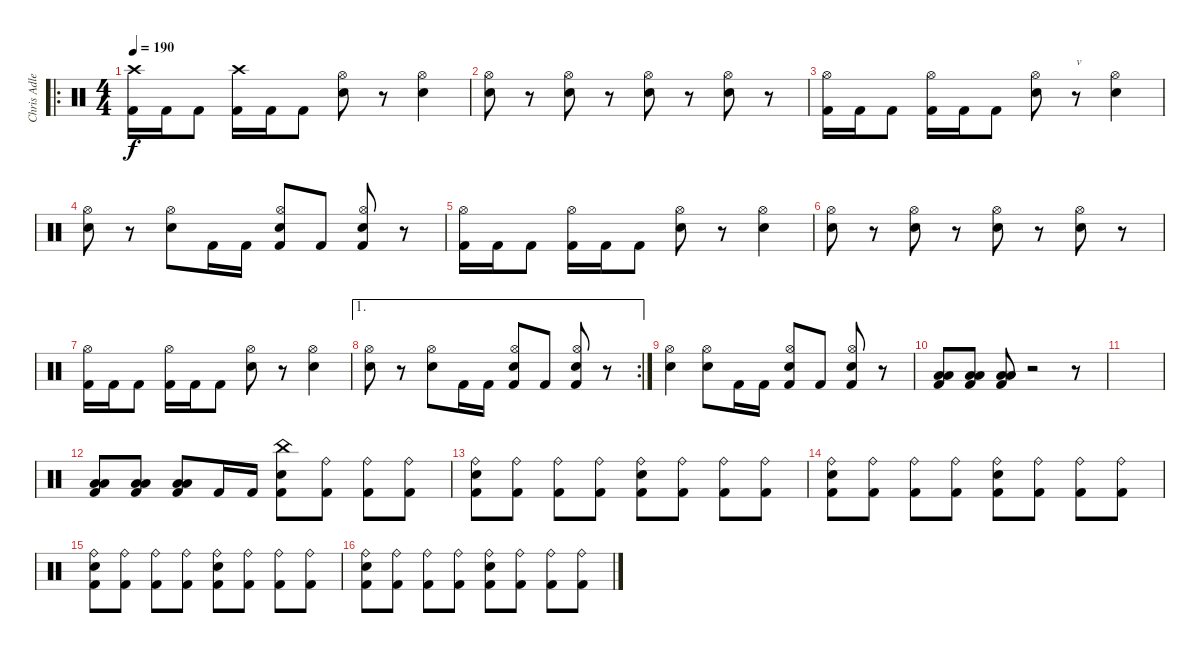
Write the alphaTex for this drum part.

\track ("Chris Adler" "Chris Adle") {instrument percussion}
\staff {score}
\articulation defaults
\ro
\ts (4 4)
\tempo 190
\clef neutral
\ks c
("Crash high (hit)" "Kick (hit) 2").16{dy f} "Kick (hit) 2".16 "Kick (hit) 2".8 ("Crash high (hit)" "Kick (hit) 2").16 "Kick (hit) 2".16 "Kick (hit) 2".8 ("Hi-Hat (open)" "Electric Snare (hit)").8 r.8 ("Hi-Hat (open)" "Electric Snare (hit)").4 |
("Hi-Hat (open)" "Electric Snare (hit)").8 r.8 ("Hi-Hat (open)" "Electric Snare (hit)").8 r.8 ("Hi-Hat (open)" "Electric Snare (hit)").8 r.8 ("Hi-Hat (open)" "Electric Snare (hit)").8 r.8 |
("Hi-Hat (open)" "Kick (hit) 2").16 "Kick (hit) 2".16 "Kick (hit) 2".8 ("Hi-Hat (open)" "Kick (hit) 2").16 "Kick (hit) 2".16 "Kick (hit) 2".8 ("Hi-Hat (open)" "Electric Snare (hit)").8 r.8{txt "v"} ("Hi-Hat (open)" "Electric Snare (hit)").4 |
("Hi-Hat (open)" "Electric Snare (hit)").8 r.8 ("Hi-Hat (open)" "Electric Snare (hit)").8 "Kick (hit) 2".16 "Kick (hit) 2".16 ("Hi-Hat (open)" "Electric Snare (hit)" "Kick (hit) 2").8 "Kick (hit) 2".8 ("Hi-Hat (open)" "Electric Snare (hit)" "Kick (hit) 2").8 r.8 |
("Hi-Hat (open)" "Kick (hit) 2").16 "Kick (hit) 2".16 "Kick (hit) 2".8 ("Hi-Hat (open)" "Kick (hit) 2").16 "Kick (hit) 2".16 "Kick (hit) 2".8 ("Hi-Hat (open)" "Electric Snare (hit)").8 r.8 ("Hi-Hat (open)" "Electric Snare (hit)").4 |
("Hi-Hat (open)" "Electric Snare (hit)").8 r.8 ("Hi-Hat (open)" "Electric Snare (hit)").8 r.8 ("Hi-Hat (open)" "Electric Snare (hit)").8 r.8 ("Hi-Hat (open)" "Electric Snare (hit)").8 r.8 |
("Hi-Hat (open)" "Kick (hit) 2").16 "Kick (hit) 2".16 "Kick (hit) 2".8 ("Hi-Hat (open)" "Kick (hit) 2").16 "Kick (hit) 2".16 "Kick (hit) 2".8 ("Hi-Hat (open)" "Electric Snare (hit)").8 r.8 ("Hi-Hat (open)" "Electric Snare (hit)").4 |
\ae 1
\rc 2
("Hi-Hat (open)" "Electric Snare (hit)").8 r.8 ("Hi-Hat (open)" "Electric Snare (hit)").8 "Kick (hit) 2".16 "Kick (hit) 2".16 ("Hi-Hat (open)" "Electric Snare (hit)" "Kick (hit) 2").8 "Kick (hit) 2".8 ("Hi-Hat (open)" "Electric Snare (hit)" "Kick (hit) 2").8 r.8 |
("Hi-Hat (open)" "Electric Snare (hit)").4 ("Hi-Hat (open)" "Electric Snare (hit)").8 "Kick (hit) 2".16 "Kick (hit) 2".16 ("Hi-Hat (open)" "Kick (hit) 2" "Electric Snare (hit)").8 "Kick (hit) 2".8 ("Hi-Hat (open)" "Kick (hit) 2" "Electric Snare (hit)").8 r.8 |
("Kick (hit) 2" "Low Floor Tom (hit)" "Low Tom (hit)").8 ("Kick (hit) 2" "Low Floor Tom (hit)" "Low Tom (hit)").8 ("Kick (hit) 2" "Low Floor Tom (hit)" "Low Tom (hit)").8 r.2 r.8 |
|
("Kick (hit) 2" "Low Tom (hit)" "Low Floor Tom (hit)").8 ("Kick (hit) 2" "Low Tom (hit)" "Low Floor Tom (hit)").8 ("Kick (hit) 2" "Low Tom (hit)" "Low Floor Tom (hit)").8 "Kick (hit) 2".16 "Kick (hit) 2".16 ("China (hit)" "Electric Snare (hit)" "Kick (hit) 2").8 ("Ride (bell)" "Kick (hit) 2").8 ("Ride (bell)" "Kick (hit) 2").8 ("Ride (bell)" "Kick (hit) 2").8 |
("Ride (bell)" "Electric Snare (hit)" "Kick (hit) 2").8 ("Ride (bell)" "Kick (hit) 2").8 ("Ride (bell)" "Kick (hit) 2").8 ("Ride (bell)" "Kick (hit) 2").8 ("Ride (bell)" "Electric Snare (hit)" "Kick (hit) 2").8 ("Ride (bell)" "Kick (hit) 2").8 ("Ride (bell)" "Kick (hit) 2").8 ("Ride (bell)" "Kick (hit) 2").8 |
("Ride (bell)" "Electric Snare (hit)" "Kick (hit) 2").8 ("Ride (bell)" "Kick (hit) 2").8 ("Ride (bell)" "Kick (hit) 2").8 ("Ride (bell)" "Kick (hit) 2").8 ("Ride (bell)" "Electric Snare (hit)" "Kick (hit) 2").8 ("Ride (bell)" "Kick (hit) 2").8 ("Ride (bell)" "Kick (hit) 2").8 ("Ride (bell)" "Kick (hit) 2").8 |
("Ride (bell)" "Electric Snare (hit)" "Kick (hit) 2").8 ("Ride (bell)" "Kick (hit) 2").8 ("Ride (bell)" "Kick (hit) 2").8 ("Ride (bell)" "Kick (hit) 2").8 ("Ride (bell)" "Electric Snare (hit)" "Kick (hit) 2").8 ("Ride (bell)" "Kick (hit) 2").8 ("Ride (bell)" "Kick (hit) 2").8 ("Ride (bell)" "Kick (hit) 2").8 |
("Ride (bell)" "Electric Snare (hit)" "Kick (hit) 2").8 ("Ride (bell)" "Kick (hit) 2").8 ("Ride (bell)" "Kick (hit) 2").8 ("Ride (bell)" "Kick (hit) 2").8 ("Ride (bell)" "Electric Snare (hit)" "Kick (hit) 2").8 ("Ride (bell)" "Kick (hit) 2").8 ("Ride (bell)" "Kick (hit) 2").8 ("Ride (bell)" "Kick (hit) 2").8
